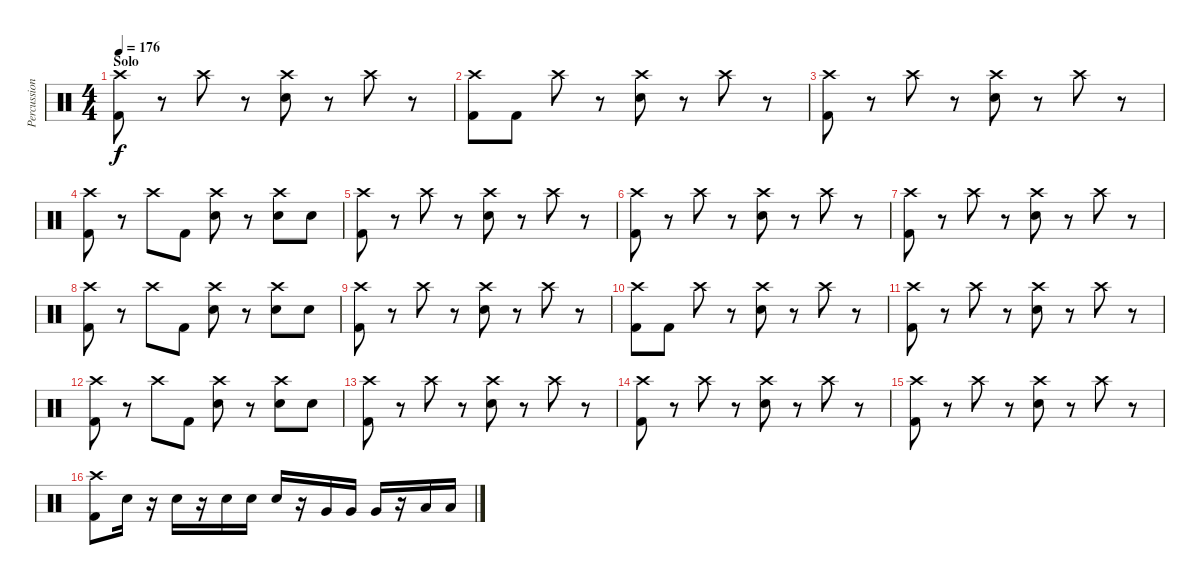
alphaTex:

\track ("Percussion" "Percussion") {instrument percussion}
\staff {score}
\articulation defaults
\ts (4 4)
\section ("" "Solo")
\tempo 176
\clef neutral
\ks c
("Crash high (hit)" "Kick (hit) 2").8{dy f} r.8 "Crash high (hit)".8 r.8 ("Crash high (hit)" "Snare (hit) 2").8 r.8 "Crash high (hit)".8 r.8 |
("Crash high (hit)" "Kick (hit) 2").8 "Kick (hit) 2".8 "Crash high (hit)".8 r.8 ("Crash high (hit)" "Snare (hit) 2").8 r.8 "Crash high (hit)".8 r.8 |
("Crash high (hit)" "Kick (hit) 2").8 r.8 "Crash high (hit)".8 r.8 ("Crash high (hit)" "Snare (hit) 2").8 r.8 "Crash high (hit)".8 r.8 |
("Crash high (hit)" "Kick (hit) 2").8 r.8 "Crash high (hit)".8 "Kick (hit) 2".8 ("Crash high (hit)" "Snare (hit) 2").8 r.8 ("Crash high (hit)" "Snare (hit) 2").8 "Snare (hit) 2".8 |
("Crash high (hit)" "Kick (hit) 2").8 r.8 "Crash high (hit)".8 r.8 ("Crash high (hit)" "Snare (hit) 2").8 r.8 "Crash high (hit)".8 r.8 |
("Crash high (hit)" "Kick (hit) 2").8 r.8 "Crash high (hit)".8 r.8 ("Crash high (hit)" "Snare (hit) 2").8 r.8 "Crash high (hit)".8 r.8 |
("Crash high (hit)" "Kick (hit) 2").8 r.8 "Crash high (hit)".8 r.8 ("Crash high (hit)" "Snare (hit) 2").8 r.8 "Crash high (hit)".8 r.8 |
("Crash high (hit)" "Kick (hit) 2").8 r.8 "Crash high (hit)".8 "Kick (hit) 2".8 ("Crash high (hit)" "Snare (hit) 2").8 r.8 ("Crash high (hit)" "Snare (hit) 2").8 "Snare (hit) 2".8 |
("Crash high (hit)" "Kick (hit) 2").8 r.8 "Crash high (hit)".8 r.8 ("Crash high (hit)" "Snare (hit) 2").8 r.8 "Crash high (hit)".8 r.8 |
("Crash high (hit)" "Kick (hit) 2").8 "Kick (hit) 2".8 "Crash high (hit)".8 r.8 ("Crash high (hit)" "Snare (hit) 2").8 r.8 "Crash high (hit)".8 r.8 |
("Crash high (hit)" "Kick (hit) 2").8 r.8 "Crash high (hit)".8 r.8 ("Crash high (hit)" "Snare (hit) 2").8 r.8 "Crash high (hit)".8 r.8 |
("Crash high (hit)" "Kick (hit) 2").8 r.8 "Crash high (hit)".8 "Kick (hit) 2".8 ("Crash high (hit)" "Snare (hit) 2").8 r.8 ("Crash high (hit)" "Snare (hit) 2").8 "Snare (hit) 2".8 |
("Crash high (hit)" "Kick (hit) 2").8 r.8 "Crash high (hit)".8 r.8 ("Crash high (hit)" "Snare (hit) 2").8 r.8 "Crash high (hit)".8 r.8 |
("Crash high (hit)" "Kick (hit) 2").8 r.8 "Crash high (hit)".8 r.8 ("Crash high (hit)" "Snare (hit) 2").8 r.8 "Crash high (hit)".8 r.8 |
("Crash high (hit)" "Kick (hit) 2").8 r.8 "Crash high (hit)".8 r.8 ("Crash high (hit)" "Snare (hit) 2").8 r.8 "Crash high (hit)".8 r.8 |
("Crash high (hit)" "Kick (hit) 2").8 "Snare (hit) 2".16 r.16 "Snare (hit) 2".16 r.16 "Snare (hit) 2".16 "Snare (hit) 2".16 "Snare (hit) 2".16 r.16 "Very Low Tom (hit)".16 "Very Low Tom (hit)".16 "Very Low Tom (hit)".16 r.16 "Low Floor Tom (hit)".16 "Low Floor Tom (hit)".16
